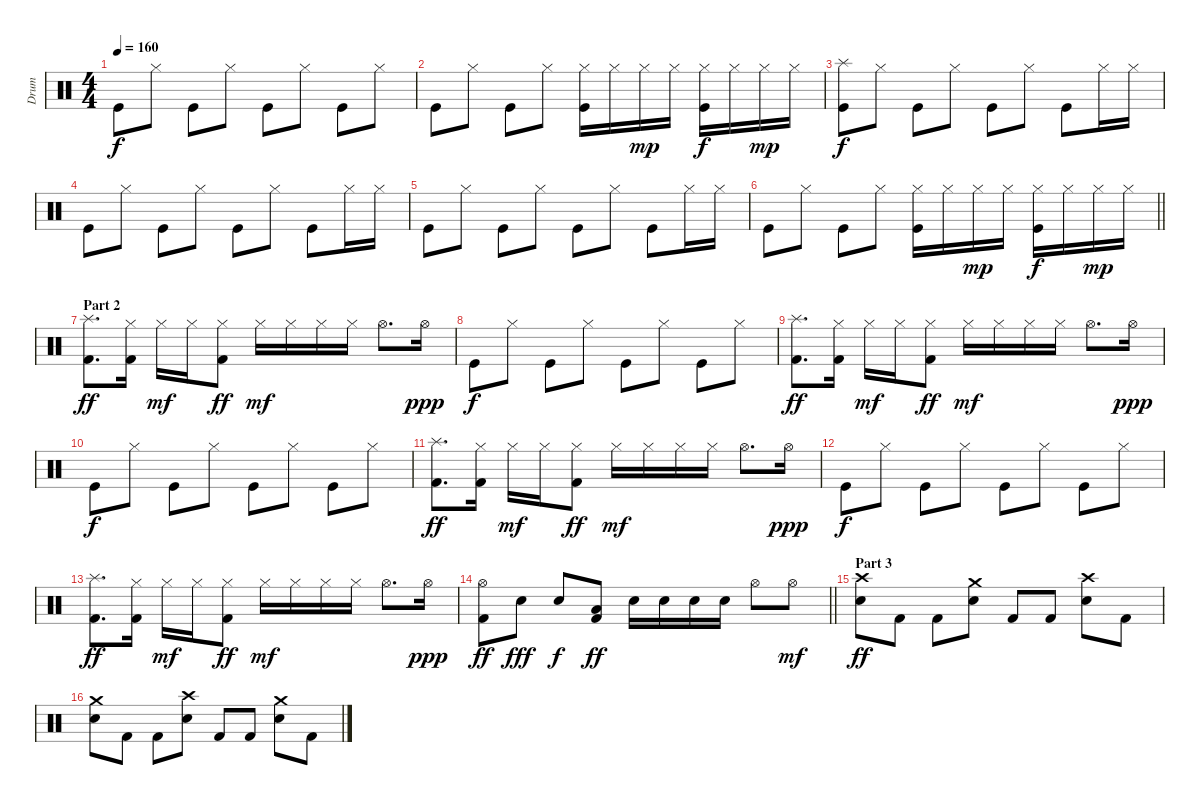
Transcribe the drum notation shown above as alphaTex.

\track ("Drum" "Drum") {instrument percussion}
\staff {score}
\articulation defaults
\ts (4 4)
\tempo 160
\clef neutral
\ks c "Kick (hit)".8{dy f} "Hi-Hat (closed)".8 "Kick (hit)".8 "Hi-Hat (closed)".8 "Kick (hit)".8 "Hi-Hat (closed)".8 "Kick (hit)".8 "Hi-Hat (closed)".8
|
"Kick (hit)".8 "Hi-Hat (closed)".8 "Kick (hit)".8 "Hi-Hat (closed)".8 ("Hi-Hat (closed)" "Kick (hit)").16 "Hi-Hat (closed)".16 "Hi-Hat (closed)".16{dy mp} "Hi-Hat (closed)".16 ("Hi-Hat (closed)" "Kick (hit)").16{dy f} "Hi-Hat (closed)".16 "Hi-Hat (closed)".16{dy mp} "Hi-Hat (closed)".16 |
("Splash (hit)" "Kick (hit)").8{dy f} "Hi-Hat (closed)".8 "Kick (hit)".8 "Hi-Hat (closed)".8 "Kick (hit)".8 "Hi-Hat (closed)".8 "Kick (hit)".8 "Hi-Hat (closed)".16 "Hi-Hat (closed)".16 |
"Kick (hit)".8 "Hi-Hat (closed)".8 "Kick (hit)".8 "Hi-Hat (closed)".8 "Kick (hit)".8 "Hi-Hat (closed)".8 "Kick (hit)".8 "Hi-Hat (closed)".16 "Hi-Hat (closed)".16 |
"Kick (hit)".8 "Hi-Hat (closed)".8 "Kick (hit)".8 "Hi-Hat (closed)".8 "Kick (hit)".8 "Hi-Hat (closed)".8 "Kick (hit)".8 "Hi-Hat (closed)".16 "Hi-Hat (closed)".16 |
\barLineRight lightlight "Kick (hit)".8 "Hi-Hat (closed)".8 "Kick (hit)".8 "Hi-Hat (closed)".8
("Hi-Hat (closed)" "Kick (hit)").16 "Hi-Hat (closed)".16 "Hi-Hat (closed)".16{dy mp} "Hi-Hat (closed)".16 ("Hi-Hat (closed)" "Kick (hit)").16{dy f} "Hi-Hat (closed)".16 "Hi-Hat (closed)".16{dy mp} "Hi-Hat (closed)".16 |
\section ("" "Part 2")
("Splash (hit)" "Kick (hit) 2").8{d dy ff} ("Hi-Hat (closed)" "Kick (hit) 2").16 "Hi-Hat (closed)".16{dy mf} "Hi-Hat (closed)".16 ("Hi-Hat (closed)" "Kick (hit) 2").8{dy ff} "Hi-Hat (closed)".16{dy mf} "Hi-Hat (closed)".16 "Hi-Hat (closed)".16 "Hi-Hat (closed)".16 "Hi-Hat (open)".8{d} "Hi-Hat (open)".16{dy ppp} |
"Kick (hit)".8{dy f} "Hi-Hat (closed)".8 "Kick (hit)".8 "Hi-Hat (closed)".8 "Kick (hit)".8 "Hi-Hat (closed)".8 "Kick (hit)".8 "Hi-Hat (closed)".8 |
("Splash (hit)" "Kick (hit) 2").8{d dy ff} ("Hi-Hat (closed)" "Kick (hit) 2").16 "Hi-Hat (closed)".16{dy mf} "Hi-Hat (closed)".16 ("Hi-Hat (closed)" "Kick (hit) 2").8{dy ff} "Hi-Hat (closed)".16{dy mf} "Hi-Hat (closed)".16 "Hi-Hat (closed)".16 "Hi-Hat (closed)".16 "Hi-Hat (open)".8{d} "Hi-Hat (open)".16{dy ppp} |
"Kick (hit)".8{dy f} "Hi-Hat (closed)".8 "Kick (hit)".8 "Hi-Hat (closed)".8 "Kick (hit)".8 "Hi-Hat (closed)".8 "Kick (hit)".8 "Hi-Hat (closed)".8 |
("Splash (hit)" "Kick (hit) 2").8{d dy ff} ("Hi-Hat (closed)" "Kick (hit) 2").16 "Hi-Hat (closed)".16{dy mf} "Hi-Hat (closed)".16 ("Hi-Hat (closed)" "Kick (hit) 2").8{dy ff} "Hi-Hat (closed)".16{dy mf} "Hi-Hat (closed)".16 "Hi-Hat (closed)".16 "Hi-Hat (closed)".16 "Hi-Hat (open)".8{d} "Hi-Hat (open)".16{dy ppp} |
"Kick (hit)".8{dy f} "Hi-Hat (closed)".8 "Kick (hit)".8 "Hi-Hat (closed)".8 "Kick (hit)".8 "Hi-Hat (closed)".8 "Kick (hit)".8 "Hi-Hat (closed)".8 |
("Splash (hit)" "Kick (hit) 2").8{d dy ff} ("Hi-Hat (closed)" "Kick (hit) 2").16 "Hi-Hat (closed)".16{dy mf} "Hi-Hat (closed)".16 ("Hi-Hat (closed)" "Kick (hit) 2").8{dy ff} "Hi-Hat (closed)".16{dy mf} "Hi-Hat (closed)".16 "Hi-Hat (closed)".16 "Hi-Hat (closed)".16 "Hi-Hat (open)".8{d} "Hi-Hat (open)".16{dy ppp} |
\barLineRight lightlight
("Hi-Hat (open)" "Kick (hit) 2").8{dy ff} "Snare (hit) 2".8{dy fff} "Snare (hit) 2".8{dy f} ("Low Tom (hit)" "Kick (hit) 2").8{dy ff} "Electric Snare (hit)".16 "Electric Snare (hit)".16 "Electric Snare (hit)".16 "Electric Snare (hit)".16 "Hi-Hat (open)".8 "Hi-Hat (open)".8{dy mf} |
\section ("" "Part 3")
("Crash high (hit)" "Electric Snare (hit)").8{dy ff} "Kick (hit) 2".8 "Kick (hit) 2".8 ("Crash medium (hit)" "Electric Snare (hit)").8 "Kick (hit) 2".8 "Kick (hit) 2".8 ("Crash high (hit)" "Electric Snare (hit)").8 "Kick (hit) 2".8 |
("Crash medium (hit)" "Electric Snare (hit)").8 "Kick (hit) 2".8 "Kick (hit) 2".8 ("Crash high (hit)" "Electric Snare (hit)").8 "Kick (hit) 2".8 "Kick (hit) 2".8 ("Crash medium (hit)" "Electric Snare (hit)").8 "Kick (hit) 2".8
